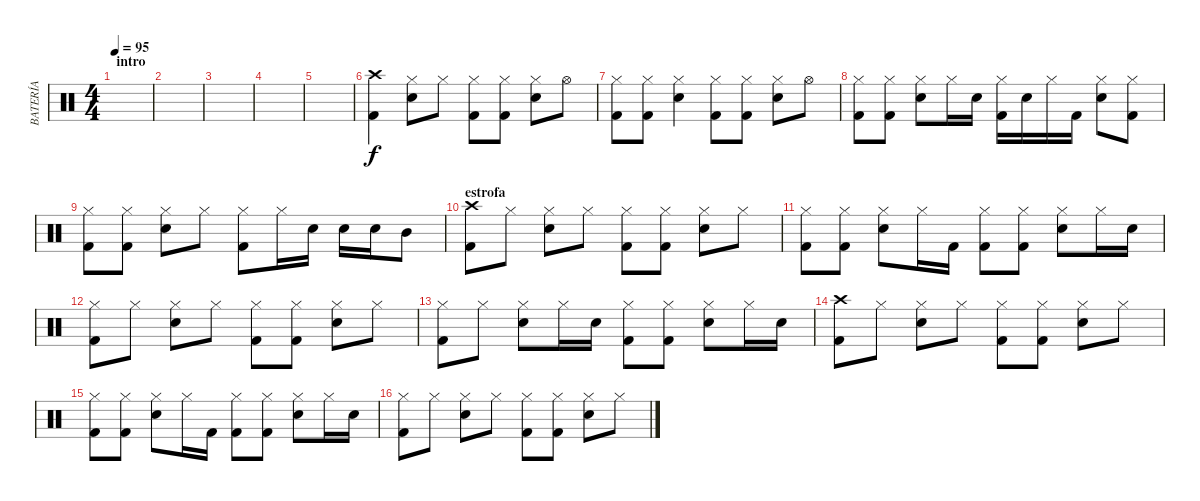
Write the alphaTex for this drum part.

\track ("BATERÍA" "BATERÍA") {instrument percussion}
\staff {score}
\articulation defaults
\ts (4 4)
\section ("" "intro")
\tempo 95
\clef neutral
\ks c
|
|
|
|
|
("Crash high (hit)" "Kick (hit) 2").4 ("Hi-Hat (closed)" "Electric Snare (hit)").8 "Hi-Hat (closed)".8 ("Hi-Hat (closed)" "Kick (hit) 2").8 ("Hi-Hat (closed)" "Kick (hit) 2").8 ("Hi-Hat (closed)" "Electric Snare (hit)").8 "Hi-Hat (open)".8 |
("Hi-Hat (closed)" "Kick (hit) 2").8 ("Hi-Hat (closed)" "Kick (hit) 2").8 ("Hi-Hat (closed)" "Electric Snare (hit)").4 ("Hi-Hat (closed)" "Kick (hit) 2").8 ("Hi-Hat (closed)" "Kick (hit) 2").8 ("Hi-Hat (closed)" "Electric Snare (hit)").8 "Hi-Hat (open)".8 |
("Hi-Hat (closed)" "Kick (hit) 2").8 ("Hi-Hat (closed)" "Kick (hit) 2").8 ("Hi-Hat (closed)" "Electric Snare (hit)").8 "Hi-Hat (closed)".16 "Electric Snare (hit)".16 ("Hi-Hat (closed)" "Kick (hit) 2").16 "Electric Snare (hit)".16 "Hi-Hat (closed)".16 "Kick (hit) 2".16 ("Hi-Hat (closed)" "Electric Snare (hit)").8 ("Hi-Hat (closed)" "Kick (hit) 2").8 |
("Hi-Hat (closed)" "Kick (hit) 2").8 ("Hi-Hat (closed)" "Kick (hit) 2").8 ("Hi-Hat (closed)" "Electric Snare (hit)").8 "Hi-Hat (closed)".8 ("Hi-Hat (closed)" "Kick (hit) 2").8 "Hi-Hat (closed)".16 "Electric Snare (hit)".16 "Electric Snare (hit)".16 "Electric Snare (hit)".16 "Mid Tom (hit)".8 |
\section ("" "estrofa")
("Crash high (hit)" "Kick (hit) 2").8 "Hi-Hat (closed)".8 ("Hi-Hat (closed)" "Electric Snare (hit)").8 "Hi-Hat (closed)".8 ("Hi-Hat (closed)" "Kick (hit) 2").8 ("Hi-Hat (closed)" "Kick (hit) 2").8 ("Hi-Hat (closed)" "Electric Snare (hit)").8 "Hi-Hat (closed)".8 |
("Hi-Hat (closed)" "Kick (hit) 2").8 ("Hi-Hat (closed)" "Kick (hit) 2").8 ("Hi-Hat (closed)" "Electric Snare (hit)").8 "Hi-Hat (closed)".16 "Kick (hit) 2".16 ("Hi-Hat (closed)" "Kick (hit) 2").8 ("Hi-Hat (closed)" "Kick (hit) 2").8 ("Hi-Hat (closed)" "Electric Snare (hit)").8 "Hi-Hat (closed)".16 "Electric Snare (hit)".16 |
("Hi-Hat (closed)" "Kick (hit) 2").8 "Hi-Hat (closed)".8 ("Hi-Hat (closed)" "Electric Snare (hit)").8 "Hi-Hat (closed)".8 ("Hi-Hat (closed)" "Kick (hit) 2").8 ("Hi-Hat (closed)" "Kick (hit) 2").8 ("Hi-Hat (closed)" "Electric Snare (hit)").8 "Hi-Hat (closed)".8 |
("Hi-Hat (closed)" "Kick (hit) 2").8 "Hi-Hat (closed)".8 ("Hi-Hat (closed)" "Electric Snare (hit)").8 "Hi-Hat (closed)".16 "Electric Snare (hit)".16 ("Hi-Hat (closed)" "Kick (hit) 2").8 ("Hi-Hat (closed)" "Kick (hit) 2").8 ("Hi-Hat (closed)" "Electric Snare (hit)").8 "Hi-Hat (closed)".16 "Electric Snare (hit)".16 |
("Crash high (hit)" "Kick (hit) 2").8 "Hi-Hat (closed)".8 ("Hi-Hat (closed)" "Electric Snare (hit)").8 "Hi-Hat (closed)".8 ("Hi-Hat (closed)" "Kick (hit) 2").8 ("Hi-Hat (closed)" "Kick (hit) 2").8 ("Hi-Hat (closed)" "Electric Snare (hit)").8 "Hi-Hat (closed)".8 |
("Hi-Hat (closed)" "Kick (hit) 2").8 ("Hi-Hat (closed)" "Kick (hit) 2").8 ("Hi-Hat (closed)" "Electric Snare (hit)").8 "Hi-Hat (closed)".16 "Kick (hit) 2".16 ("Hi-Hat (closed)" "Kick (hit) 2").8 ("Hi-Hat (closed)" "Kick (hit) 2").8 ("Hi-Hat (closed)" "Electric Snare (hit)").8 "Hi-Hat (closed)".16 "Electric Snare (hit)".16 |
("Hi-Hat (closed)" "Kick (hit) 2").8 "Hi-Hat (closed)".8 ("Hi-Hat (closed)" "Electric Snare (hit)").8 "Hi-Hat (closed)".8 ("Hi-Hat (closed)" "Kick (hit) 2").8 ("Hi-Hat (closed)" "Kick (hit) 2").8 ("Hi-Hat (closed)" "Electric Snare (hit)").8 "Hi-Hat (closed)".8
